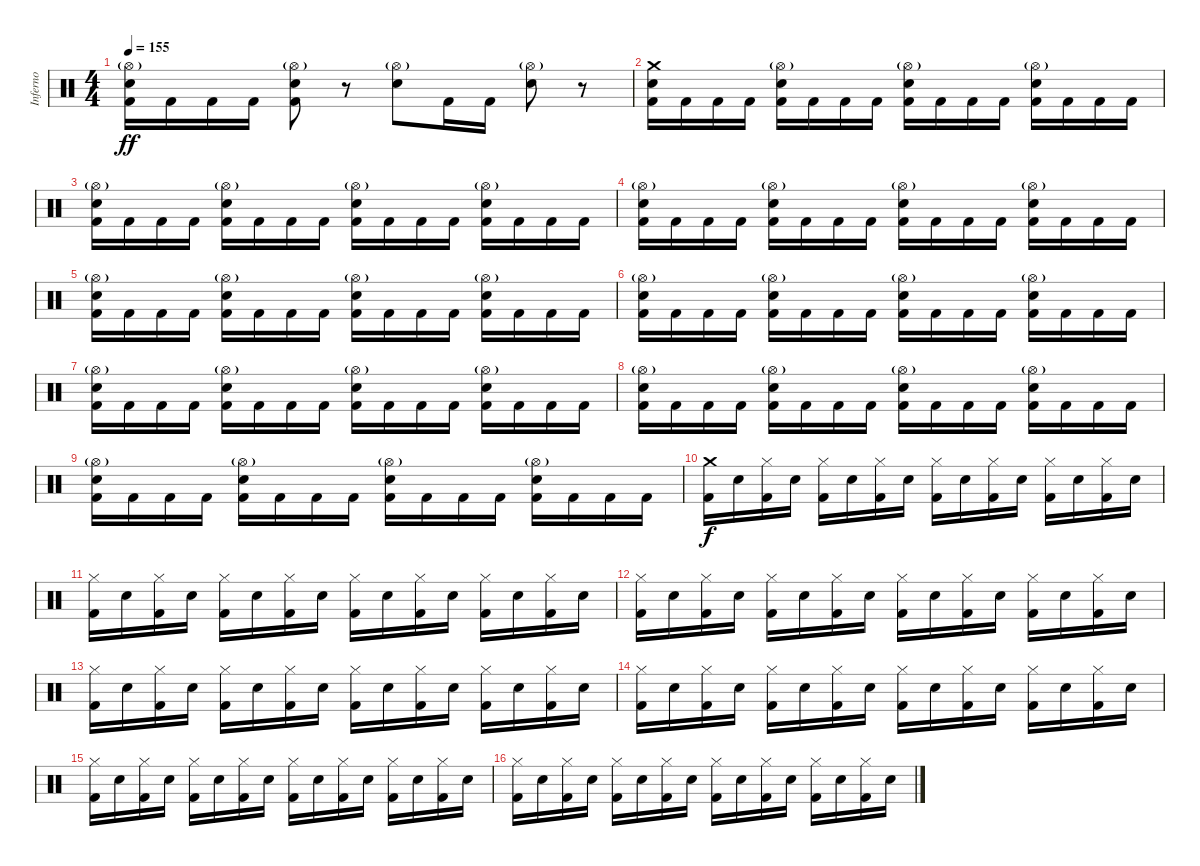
\track ("Inferno" "Inferno") {instrument percussion}
\staff {score}
\articulation defaults
\ts (4 4)
\tempo 155
\clef neutral
\ks c
("Hi-Hat (open)"{g} "Snare (hit) 2" "Kick (hit) 2").16{dy ff} "Kick (hit) 2".16 "Kick (hit) 2".16 "Kick (hit) 2".16 ("Hi-Hat (open)"{g} "Snare (hit) 2" "Kick (hit) 2").8 r.8 ("Hi-Hat (open)"{g} "Snare (hit) 2").8 "Kick (hit) 2".16 "Kick (hit) 2".16 ("Hi-Hat (open)"{g} "Snare (hit) 2").8 r.8 |
("Crash medium (hit)" "Snare (hit) 2" "Kick (hit) 2").16 "Kick (hit) 2".16 "Kick (hit) 2".16 "Kick (hit) 2".16 ("Hi-Hat (open)"{g} "Snare (hit) 2" "Kick (hit) 2").16 "Kick (hit) 2".16 "Kick (hit) 2".16 "Kick (hit) 2".16 ("Hi-Hat (open)"{g} "Snare (hit) 2" "Kick (hit) 2").16 "Kick (hit) 2".16 "Kick (hit) 2".16 "Kick (hit) 2".16 ("Hi-Hat (open)"{g} "Snare (hit) 2" "Kick (hit) 2").16 "Kick (hit) 2".16 "Kick (hit) 2".16 "Kick (hit) 2".16 |
("Hi-Hat (open)"{g} "Snare (hit) 2" "Kick (hit) 2").16 "Kick (hit) 2".16 "Kick (hit) 2".16 "Kick (hit) 2".16 ("Hi-Hat (open)"{g} "Snare (hit) 2" "Kick (hit) 2").16 "Kick (hit) 2".16 "Kick (hit) 2".16 "Kick (hit) 2".16 ("Hi-Hat (open)"{g} "Snare (hit) 2" "Kick (hit) 2").16 "Kick (hit) 2".16 "Kick (hit) 2".16 "Kick (hit) 2".16 ("Hi-Hat (open)"{g} "Snare (hit) 2" "Kick (hit) 2").16 "Kick (hit) 2".16 "Kick (hit) 2".16 "Kick (hit) 2".16 |
("Hi-Hat (open)"{g} "Snare (hit) 2" "Kick (hit) 2").16 "Kick (hit) 2".16 "Kick (hit) 2".16 "Kick (hit) 2".16 ("Hi-Hat (open)"{g} "Snare (hit) 2" "Kick (hit) 2").16 "Kick (hit) 2".16 "Kick (hit) 2".16 "Kick (hit) 2".16 ("Hi-Hat (open)"{g} "Snare (hit) 2" "Kick (hit) 2").16 "Kick (hit) 2".16 "Kick (hit) 2".16 "Kick (hit) 2".16 ("Hi-Hat (open)"{g} "Snare (hit) 2" "Kick (hit) 2").16 "Kick (hit) 2".16 "Kick (hit) 2".16 "Kick (hit) 2".16 |
("Hi-Hat (open)"{g} "Snare (hit) 2" "Kick (hit) 2").16 "Kick (hit) 2".16 "Kick (hit) 2".16 "Kick (hit) 2".16 ("Hi-Hat (open)"{g} "Snare (hit) 2" "Kick (hit) 2").16 "Kick (hit) 2".16 "Kick (hit) 2".16 "Kick (hit) 2".16 ("Hi-Hat (open)"{g} "Snare (hit) 2" "Kick (hit) 2").16 "Kick (hit) 2".16 "Kick (hit) 2".16 "Kick (hit) 2".16 ("Hi-Hat (open)"{g} "Snare (hit) 2" "Kick (hit) 2").16 "Kick (hit) 2".16 "Kick (hit) 2".16 "Kick (hit) 2".16 |
("Hi-Hat (open)"{g} "Snare (hit) 2" "Kick (hit) 2").16 "Kick (hit) 2".16 "Kick (hit) 2".16 "Kick (hit) 2".16 ("Hi-Hat (open)"{g} "Snare (hit) 2" "Kick (hit) 2").16 "Kick (hit) 2".16 "Kick (hit) 2".16 "Kick (hit) 2".16 ("Hi-Hat (open)"{g} "Snare (hit) 2" "Kick (hit) 2").16 "Kick (hit) 2".16 "Kick (hit) 2".16 "Kick (hit) 2".16 ("Hi-Hat (open)"{g} "Snare (hit) 2" "Kick (hit) 2").16 "Kick (hit) 2".16 "Kick (hit) 2".16 "Kick (hit) 2".16 |
("Hi-Hat (open)"{g} "Snare (hit) 2" "Kick (hit) 2").16 "Kick (hit) 2".16 "Kick (hit) 2".16 "Kick (hit) 2".16 ("Hi-Hat (open)"{g} "Snare (hit) 2" "Kick (hit) 2").16 "Kick (hit) 2".16 "Kick (hit) 2".16 "Kick (hit) 2".16 ("Hi-Hat (open)"{g} "Snare (hit) 2" "Kick (hit) 2").16 "Kick (hit) 2".16 "Kick (hit) 2".16 "Kick (hit) 2".16 ("Hi-Hat (open)"{g} "Snare (hit) 2" "Kick (hit) 2").16 "Kick (hit) 2".16 "Kick (hit) 2".16 "Kick (hit) 2".16 |
("Hi-Hat (open)"{g} "Snare (hit) 2" "Kick (hit) 2").16 "Kick (hit) 2".16 "Kick (hit) 2".16 "Kick (hit) 2".16 ("Hi-Hat (open)"{g} "Snare (hit) 2" "Kick (hit) 2").16 "Kick (hit) 2".16 "Kick (hit) 2".16 "Kick (hit) 2".16 ("Hi-Hat (open)"{g} "Snare (hit) 2" "Kick (hit) 2").16 "Kick (hit) 2".16 "Kick (hit) 2".16 "Kick (hit) 2".16 ("Hi-Hat (open)"{g} "Snare (hit) 2" "Kick (hit) 2").16 "Kick (hit) 2".16 "Kick (hit) 2".16 "Kick (hit) 2".16 |
("Hi-Hat (open)"{g} "Snare (hit) 2" "Kick (hit) 2").16 "Kick (hit) 2".16 "Kick (hit) 2".16 "Kick (hit) 2".16 ("Hi-Hat (open)"{g} "Snare (hit) 2" "Kick (hit) 2").16 "Kick (hit) 2".16 "Kick (hit) 2".16 "Kick (hit) 2".16 ("Hi-Hat (open)"{g} "Snare (hit) 2" "Kick (hit) 2").16 "Kick (hit) 2".16 "Kick (hit) 2".16 "Kick (hit) 2".16 ("Hi-Hat (open)"{g} "Snare (hit) 2" "Kick (hit) 2").16 "Kick (hit) 2".16 "Kick (hit) 2".16 "Kick (hit) 2".16 |
("Crash medium (hit)" "Kick (hit) 2").16{dy f} "Snare (hit) 2".16 ("Hi-Hat (closed)" "Kick (hit) 2").16 "Snare (hit) 2".16 ("Hi-Hat (closed)" "Kick (hit) 2").16 "Snare (hit) 2".16 ("Hi-Hat (closed)" "Kick (hit) 2").16 "Snare (hit) 2".16 ("Hi-Hat (closed)" "Kick (hit) 2").16 "Snare (hit) 2".16 ("Hi-Hat (closed)" "Kick (hit) 2").16 "Snare (hit) 2".16 ("Hi-Hat (closed)" "Kick (hit) 2").16 "Snare (hit) 2".16 ("Hi-Hat (closed)" "Kick (hit) 2").16 "Snare (hit) 2".16 |
("Hi-Hat (closed)" "Kick (hit) 2").16 "Snare (hit) 2".16 ("Hi-Hat (closed)" "Kick (hit) 2").16 "Snare (hit) 2".16 ("Hi-Hat (closed)" "Kick (hit) 2").16 "Snare (hit) 2".16 ("Hi-Hat (closed)" "Kick (hit) 2").16 "Snare (hit) 2".16 ("Hi-Hat (closed)" "Kick (hit) 2").16 "Snare (hit) 2".16 ("Hi-Hat (closed)" "Kick (hit) 2").16 "Snare (hit) 2".16 ("Hi-Hat (closed)" "Kick (hit) 2").16 "Snare (hit) 2".16 ("Hi-Hat (closed)" "Kick (hit) 2").16 "Snare (hit) 2".16 |
("Hi-Hat (closed)" "Kick (hit) 2").16 "Snare (hit) 2".16 ("Hi-Hat (closed)" "Kick (hit) 2").16 "Snare (hit) 2".16 ("Hi-Hat (closed)" "Kick (hit) 2").16 "Snare (hit) 2".16 ("Hi-Hat (closed)" "Kick (hit) 2").16 "Snare (hit) 2".16 ("Hi-Hat (closed)" "Kick (hit) 2").16 "Snare (hit) 2".16 ("Hi-Hat (closed)" "Kick (hit) 2").16 "Snare (hit) 2".16 ("Hi-Hat (closed)" "Kick (hit) 2").16 "Snare (hit) 2".16 ("Hi-Hat (closed)" "Kick (hit) 2").16 "Snare (hit) 2".16 |
("Hi-Hat (closed)" "Kick (hit) 2").16 "Snare (hit) 2".16 ("Hi-Hat (closed)" "Kick (hit) 2").16 "Snare (hit) 2".16 ("Hi-Hat (closed)" "Kick (hit) 2").16 "Snare (hit) 2".16 ("Hi-Hat (closed)" "Kick (hit) 2").16 "Snare (hit) 2".16 ("Hi-Hat (closed)" "Kick (hit) 2").16 "Snare (hit) 2".16 ("Hi-Hat (closed)" "Kick (hit) 2").16 "Snare (hit) 2".16 ("Hi-Hat (closed)" "Kick (hit) 2").16 "Snare (hit) 2".16 ("Hi-Hat (closed)" "Kick (hit) 2").16 "Snare (hit) 2".16 |
("Hi-Hat (closed)" "Kick (hit) 2").16 "Snare (hit) 2".16 ("Hi-Hat (closed)" "Kick (hit) 2").16 "Snare (hit) 2".16 ("Hi-Hat (closed)" "Kick (hit) 2").16 "Snare (hit) 2".16 ("Hi-Hat (closed)" "Kick (hit) 2").16 "Snare (hit) 2".16 ("Hi-Hat (closed)" "Kick (hit) 2").16 "Snare (hit) 2".16 ("Hi-Hat (closed)" "Kick (hit) 2").16 "Snare (hit) 2".16 ("Hi-Hat (closed)" "Kick (hit) 2").16 "Snare (hit) 2".16 ("Hi-Hat (closed)" "Kick (hit) 2").16 "Snare (hit) 2".16 |
("Hi-Hat (closed)" "Kick (hit) 2").16 "Snare (hit) 2".16 ("Hi-Hat (closed)" "Kick (hit) 2").16 "Snare (hit) 2".16 ("Hi-Hat (closed)" "Kick (hit) 2").16 "Snare (hit) 2".16 ("Hi-Hat (closed)" "Kick (hit) 2").16 "Snare (hit) 2".16 ("Hi-Hat (closed)" "Kick (hit) 2").16 "Snare (hit) 2".16 ("Hi-Hat (closed)" "Kick (hit) 2").16 "Snare (hit) 2".16 ("Hi-Hat (closed)" "Kick (hit) 2").16 "Snare (hit) 2".16 ("Hi-Hat (closed)" "Kick (hit) 2").16 "Snare (hit) 2".16 |
("Hi-Hat (closed)" "Kick (hit) 2").16 "Snare (hit) 2".16 ("Hi-Hat (closed)" "Kick (hit) 2").16 "Snare (hit) 2".16 ("Hi-Hat (closed)" "Kick (hit) 2").16 "Snare (hit) 2".16 ("Hi-Hat (closed)" "Kick (hit) 2").16 "Snare (hit) 2".16 ("Hi-Hat (closed)" "Kick (hit) 2").16 "Snare (hit) 2".16 ("Hi-Hat (closed)" "Kick (hit) 2").16 "Snare (hit) 2".16 ("Hi-Hat (closed)" "Kick (hit) 2").16 "Snare (hit) 2".16 ("Hi-Hat (closed)" "Kick (hit) 2").16 "Snare (hit) 2".16
